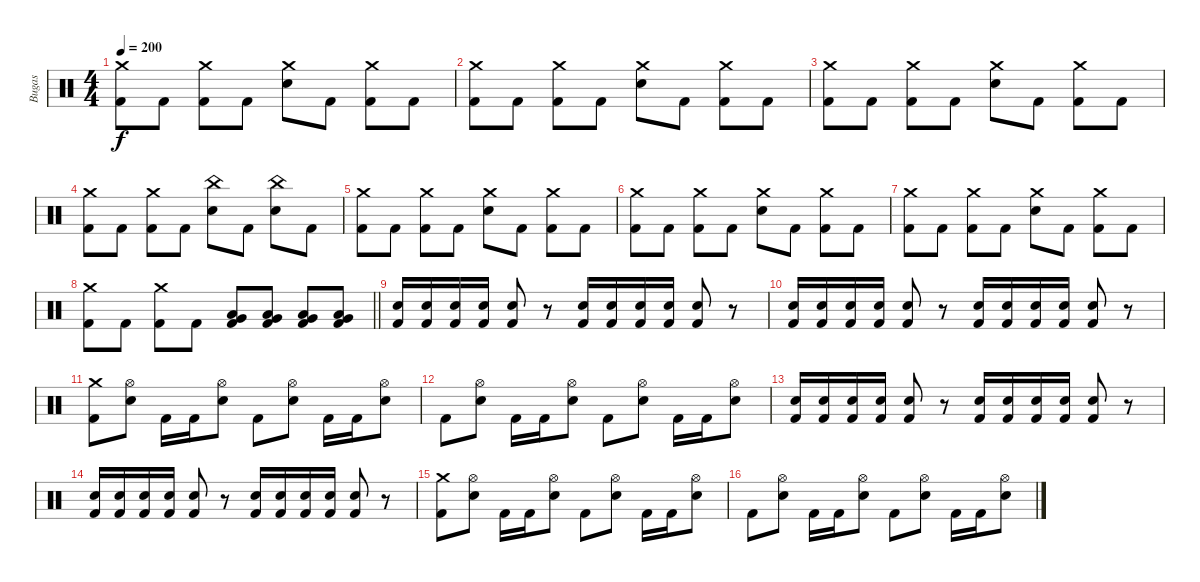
\track ("Bugas" "Bugas") {instrument percussion}
\staff {score}
\articulation defaults
\ts (4 4)
\tempo 200
\clef neutral
\ks c
("Crash medium (hit)" "Kick (hit) 2").8{dy f} "Kick (hit) 2".8 ("Crash medium (hit)" "Kick (hit) 2").8 "Kick (hit) 2".8 ("Crash medium (hit)" "Electric Snare (hit)").8 "Kick (hit) 2".8 ("Crash medium (hit)" "Kick (hit) 2").8 "Kick (hit) 2".8 |
("Crash medium (hit)" "Kick (hit) 2").8 "Kick (hit) 2".8 ("Crash medium (hit)" "Kick (hit) 2").8 "Kick (hit) 2".8 ("Crash medium (hit)" "Electric Snare (hit)").8 "Kick (hit) 2".8 ("Crash medium (hit)" "Kick (hit) 2").8 "Kick (hit) 2".8 |
("Crash medium (hit)" "Kick (hit) 2").8 "Kick (hit) 2".8 ("Crash medium (hit)" "Kick (hit) 2").8 "Kick (hit) 2".8 ("Crash medium (hit)" "Electric Snare (hit)").8 "Kick (hit) 2".8 ("Crash medium (hit)" "Kick (hit) 2").8 "Kick (hit) 2".8 |
("Crash medium (hit)" "Kick (hit) 2").8 "Kick (hit) 2".8 ("Crash medium (hit)" "Kick (hit) 2").8 "Kick (hit) 2".8 ("China (hit)" "Electric Snare (hit)").8 "Kick (hit) 2".8 ("China (hit)" "Electric Snare (hit)").8 "Kick (hit) 2".8 |
("Crash medium (hit)" "Kick (hit) 2").8 "Kick (hit) 2".8 ("Crash medium (hit)" "Kick (hit) 2").8 "Kick (hit) 2".8 ("Crash medium (hit)" "Electric Snare (hit)").8 "Kick (hit) 2".8 ("Crash medium (hit)" "Kick (hit) 2").8 "Kick (hit) 2".8 |
("Crash medium (hit)" "Kick (hit) 2").8 "Kick (hit) 2".8 ("Crash medium (hit)" "Kick (hit) 2").8 "Kick (hit) 2".8 ("Crash medium (hit)" "Electric Snare (hit)").8 "Kick (hit) 2".8 ("Crash medium (hit)" "Kick (hit) 2").8 "Kick (hit) 2".8 |
("Crash medium (hit)" "Kick (hit) 2").8 "Kick (hit) 2".8 ("Crash medium (hit)" "Kick (hit) 2").8 "Kick (hit) 2".8 ("Crash medium (hit)" "Electric Snare (hit)").8 "Kick (hit) 2".8 ("Crash medium (hit)" "Kick (hit) 2").8 "Kick (hit) 2".8 |
\barLineRight lightlight
("Crash medium (hit)" "Kick (hit) 2").8 "Kick (hit) 2".8 ("Crash medium (hit)" "Kick (hit) 2").8 "Kick (hit) 2".8 ("Very Low Tom (hit)" "Low Tom (hit)" "Kick (hit) 2").8 ("Very Low Tom (hit)" "Low Tom (hit)" "Kick (hit) 2").8 ("Very Low Tom (hit)" "Low Tom (hit)" "Kick (hit) 2").8 ("Very Low Tom (hit)" "Low Tom (hit)" "Kick (hit) 2").8 |
("Electric Snare (hit)" "Kick (hit) 2").16 ("Electric Snare (hit)" "Kick (hit) 2").16 ("Electric Snare (hit)" "Kick (hit) 2").16 ("Electric Snare (hit)" "Kick (hit) 2").16 ("Electric Snare (hit)" "Kick (hit) 2").8 r.8 ("Electric Snare (hit)" "Kick (hit) 2").16 ("Electric Snare (hit)" "Kick (hit) 2").16 ("Electric Snare (hit)" "Kick (hit) 2").16 ("Electric Snare (hit)" "Kick (hit) 2").16 ("Electric Snare (hit)" "Kick (hit) 2").8 r.8 |
("Electric Snare (hit)" "Kick (hit) 2").16 ("Electric Snare (hit)" "Kick (hit) 2").16 ("Electric Snare (hit)" "Kick (hit) 2").16 ("Electric Snare (hit)" "Kick (hit) 2").16 ("Electric Snare (hit)" "Kick (hit) 2").8 r.8 ("Electric Snare (hit)" "Kick (hit) 2").16 ("Electric Snare (hit)" "Kick (hit) 2").16 ("Electric Snare (hit)" "Kick (hit) 2").16 ("Electric Snare (hit)" "Kick (hit) 2").16 ("Electric Snare (hit)" "Kick (hit) 2").8 r.8 |
("Crash medium (hit)" "Kick (hit) 2").8 ("Hi-Hat (open)" "Electric Snare (hit)").8 "Kick (hit) 2".16 "Kick (hit) 2".16 ("Hi-Hat (open)" "Electric Snare (hit)").8 "Kick (hit) 2".8 ("Hi-Hat (open)" "Electric Snare (hit)").8 "Kick (hit) 2".16 "Kick (hit) 2".16 ("Hi-Hat (open)" "Electric Snare (hit)").8 |
"Kick (hit) 2".8 ("Hi-Hat (open)" "Electric Snare (hit)").8 "Kick (hit) 2".16 "Kick (hit) 2".16 ("Hi-Hat (open)" "Electric Snare (hit)").8 "Kick (hit) 2".8 ("Hi-Hat (open)" "Electric Snare (hit)").8 "Kick (hit) 2".16 "Kick (hit) 2".16 ("Hi-Hat (open)" "Electric Snare (hit)").8 |
("Electric Snare (hit)" "Kick (hit) 2").16 ("Electric Snare (hit)" "Kick (hit) 2").16 ("Electric Snare (hit)" "Kick (hit) 2").16 ("Electric Snare (hit)" "Kick (hit) 2").16 ("Electric Snare (hit)" "Kick (hit) 2").8 r.8 ("Electric Snare (hit)" "Kick (hit) 2").16 ("Electric Snare (hit)" "Kick (hit) 2").16 ("Electric Snare (hit)" "Kick (hit) 2").16 ("Electric Snare (hit)" "Kick (hit) 2").16 ("Electric Snare (hit)" "Kick (hit) 2").8 r.8 |
("Electric Snare (hit)" "Kick (hit) 2").16 ("Electric Snare (hit)" "Kick (hit) 2").16 ("Electric Snare (hit)" "Kick (hit) 2").16 ("Electric Snare (hit)" "Kick (hit) 2").16 ("Electric Snare (hit)" "Kick (hit) 2").8 r.8 ("Electric Snare (hit)" "Kick (hit) 2").16 ("Electric Snare (hit)" "Kick (hit) 2").16 ("Electric Snare (hit)" "Kick (hit) 2").16 ("Electric Snare (hit)" "Kick (hit) 2").16 ("Electric Snare (hit)" "Kick (hit) 2").8 r.8 |
("Crash medium (hit)" "Kick (hit) 2").8 ("Hi-Hat (open)" "Electric Snare (hit)").8 "Kick (hit) 2".16 "Kick (hit) 2".16 ("Hi-Hat (open)" "Electric Snare (hit)").8 "Kick (hit) 2".8 ("Hi-Hat (open)" "Electric Snare (hit)").8 "Kick (hit) 2".16 "Kick (hit) 2".16 ("Hi-Hat (open)" "Electric Snare (hit)").8 |
"Kick (hit) 2".8 ("Hi-Hat (open)" "Electric Snare (hit)").8 "Kick (hit) 2".16 "Kick (hit) 2".16 ("Hi-Hat (open)" "Electric Snare (hit)").8 "Kick (hit) 2".8 ("Hi-Hat (open)" "Electric Snare (hit)").8 "Kick (hit) 2".16 "Kick (hit) 2".16 ("Hi-Hat (open)" "Electric Snare (hit)").8
